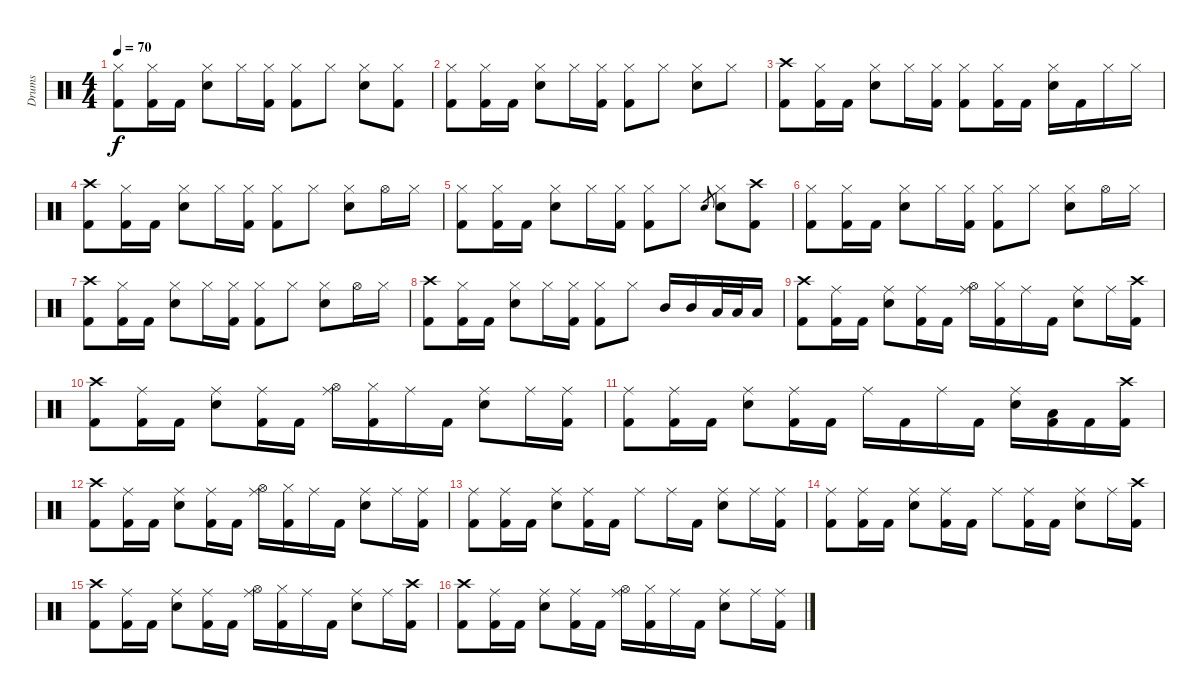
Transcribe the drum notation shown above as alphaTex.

\track ("Drums" "Drums") {instrument percussion}
\staff {score}
\articulation defaults
\ts (4 4)
\tempo 70
\clef neutral
\ks c
("Hi-Hat (closed)" "Kick (hit) 2").8{dy f} ("Hi-Hat (closed)" "Kick (hit) 2").16 "Kick (hit) 2".16 ("Hi-Hat (closed)" "Electric Snare (hit)").8 "Hi-Hat (closed)".16 ("Hi-Hat (closed)" "Kick (hit) 2").16 ("Hi-Hat (closed)" "Kick (hit) 2").8 "Hi-Hat (closed)".8 ("Hi-Hat (closed)" "Electric Snare (hit)").8 ("Hi-Hat (closed)" "Kick (hit) 2").8 |
("Hi-Hat (closed)" "Kick (hit) 2").8 ("Hi-Hat (closed)" "Kick (hit) 2").16 "Kick (hit) 2".16 ("Hi-Hat (closed)" "Electric Snare (hit)").8 "Hi-Hat (closed)".16 ("Hi-Hat (closed)" "Kick (hit) 2").16 ("Hi-Hat (closed)" "Kick (hit) 2").8 "Hi-Hat (closed)".8 ("Hi-Hat (closed)" "Electric Snare (hit)").8 "Hi-Hat (closed)".8 |
("Crash high (hit)" "Kick (hit) 2").8 ("Hi-Hat (closed)" "Kick (hit) 2").16 "Kick (hit) 2".16 ("Hi-Hat (closed)" "Electric Snare (hit)").8 "Hi-Hat (closed)".16 ("Hi-Hat (closed)" "Kick (hit) 2").16 ("Hi-Hat (closed)" "Kick (hit) 2").8 ("Hi-Hat (closed)" "Kick (hit) 2").16 "Kick (hit) 2".16 ("Hi-Hat (closed)" "Electric Snare (hit)").16 "Kick (hit) 2".16 "Hi-Hat (closed)".16 "Hi-Hat (closed)".16 |
("Crash high (hit)" "Kick (hit) 2").8 ("Hi-Hat (closed)" "Kick (hit) 2").16 "Kick (hit) 2".16 ("Hi-Hat (closed)" "Electric Snare (hit)").8 "Hi-Hat (closed)".16 ("Hi-Hat (closed)" "Kick (hit) 2").16 ("Hi-Hat (closed)" "Kick (hit) 2").8 "Hi-Hat (closed)".8 ("Hi-Hat (closed)" "Electric Snare (hit)").8 "Hi-Hat (open)".16 "Hi-Hat (closed)".16 |
("Hi-Hat (closed)" "Kick (hit) 2").8 ("Hi-Hat (closed)" "Kick (hit) 2").16 "Kick (hit) 2".16 ("Hi-Hat (closed)" "Electric Snare (hit)").8 "Hi-Hat (closed)".16 ("Hi-Hat (closed)" "Kick (hit) 2").16 ("Hi-Hat (closed)" "Kick (hit) 2").8 "Hi-Hat (closed)".8 "Electric Snare (hit)".8{gr} ("Hi-Hat (closed)" "Electric Snare (hit)").8 ("Crash high (hit)" "Kick (hit) 2").8 |
("Hi-Hat (closed)" "Kick (hit) 2").8 ("Hi-Hat (closed)" "Kick (hit) 2").16 "Kick (hit) 2".16 ("Hi-Hat (closed)" "Electric Snare (hit)").8 "Hi-Hat (closed)".16 ("Hi-Hat (closed)" "Kick (hit) 2").16 ("Hi-Hat (closed)" "Kick (hit) 2").8 "Hi-Hat (closed)".8 ("Hi-Hat (closed)" "Electric Snare (hit)").8 "Hi-Hat (open)".16 "Hi-Hat (closed)".16 |
("Crash high (hit)" "Kick (hit) 2").8 ("Hi-Hat (closed)" "Kick (hit) 2").16 "Kick (hit) 2".16 ("Hi-Hat (closed)" "Electric Snare (hit)").8 "Hi-Hat (closed)".16 ("Hi-Hat (closed)" "Kick (hit) 2").16 ("Hi-Hat (closed)" "Kick (hit) 2").8 "Hi-Hat (closed)".8 ("Hi-Hat (closed)" "Electric Snare (hit)").8 "Hi-Hat (open)".16 "Hi-Hat (closed)".16 |
("Crash high (hit)" "Kick (hit) 2").8 ("Hi-Hat (closed)" "Kick (hit) 2").16 "Kick (hit) 2".16 ("Hi-Hat (closed)" "Electric Snare (hit)").8 "Hi-Hat (closed)".16 ("Hi-Hat (closed)" "Kick (hit) 2").16 ("Hi-Hat (closed)" "Kick (hit) 2").8 "Hi-Hat (closed)".8 "Mid Tom (hit)".16 "Mid Tom (hit)".16 "Low Floor Tom (hit)".32 "Low Floor Tom (hit)".32 "Low Tom (hit)".16 |
("Crash high (hit)" "Kick (hit) 2").8 ("Ride (middle)" "Kick (hit) 2").16 "Kick (hit) 2".16 ("Ride (middle)" "Electric Snare (hit)").8 ("Ride (middle)" "Kick (hit) 2").16 "Kick (hit) 2".16 ("Ride (middle)" "Hi-Hat (open)").16 ("Hi-Hat (closed)" "Kick (hit) 2").16 "Ride (middle)".16 "Kick (hit) 2".16 ("Ride (middle)" "Electric Snare (hit)").8 "Ride (middle)".16 ("Crash high (hit)" "Kick (hit) 2").16 |
("Crash high (hit)" "Kick (hit) 2").8 ("Ride (middle)" "Kick (hit) 2").16 "Kick (hit) 2".16 ("Ride (middle)" "Electric Snare (hit)").8 ("Ride (middle)" "Kick (hit) 2").16 "Kick (hit) 2".16 ("Ride (middle)" "Hi-Hat (open)").16 ("Hi-Hat (closed)" "Kick (hit) 2").16 "Ride (middle)".16 "Kick (hit) 2".16 ("Ride (middle)" "Electric Snare (hit)").8 "Ride (middle)".16 ("Ride (middle)" "Kick (hit) 2").16 |
("Ride (middle)" "Kick (hit) 2").8 ("Ride (middle)" "Kick (hit) 2").16 "Kick (hit) 2".16 ("Ride (middle)" "Electric Snare (hit)").8 ("Ride (middle)" "Kick (hit) 2").16 "Kick (hit) 2".16 "Ride (middle)".16 "Kick (hit) 2".16 "Ride (middle)".16 "Kick (hit) 2".16 ("Ride (middle)" "Electric Snare (hit)").16 ("Low Tom (hit)" "Kick (hit) 2").16 "Kick (hit) 2".16 ("Crash high (hit)" "Kick (hit) 2").16 |
("Crash high (hit)" "Kick (hit) 2").8 ("Ride (middle)" "Kick (hit) 2").16 "Kick (hit) 2".16 ("Ride (middle)" "Electric Snare (hit)").8 ("Ride (middle)" "Kick (hit) 2").16 "Kick (hit) 2".16 ("Ride (middle)" "Hi-Hat (open)").16 ("Hi-Hat (closed)" "Kick (hit) 2").16 "Ride (middle)".16 "Kick (hit) 2".16 ("Ride (middle)" "Electric Snare (hit)").8 "Ride (middle)".16 ("Ride (middle)" "Kick (hit) 2").16 |
("Ride (middle)" "Kick (hit) 2").8 ("Ride (middle)" "Kick (hit) 2").16 "Kick (hit) 2".16 ("Ride (middle)" "Electric Snare (hit)").8 ("Ride (middle)" "Kick (hit) 2").16 "Kick (hit) 2".16 "Ride (middle)".8 "Ride (middle)".16 "Kick (hit) 2".16 ("Ride (middle)" "Electric Snare (hit)").8 "Ride (middle)".16 ("Ride (middle)" "Kick (hit) 2").16 |
("Ride (middle)" "Kick (hit) 2").8 ("Ride (middle)" "Kick (hit) 2").16 "Kick (hit) 2".16 ("Ride (middle)" "Electric Snare (hit)").8 ("Ride (middle)" "Kick (hit) 2").16 "Kick (hit) 2".16 "Ride (middle)".8 ("Ride (middle)" "Kick (hit) 2").16 "Kick (hit) 2".16 ("Ride (middle)" "Electric Snare (hit)").8 "Ride (middle)".16 ("Crash high (hit)" "Kick (hit) 2").16 |
("Crash high (hit)" "Kick (hit) 2").8 ("Ride (middle)" "Kick (hit) 2").16 "Kick (hit) 2".16 ("Ride (middle)" "Electric Snare (hit)").8 ("Ride (middle)" "Kick (hit) 2").16 "Kick (hit) 2".16 ("Ride (middle)" "Hi-Hat (open)").16 ("Hi-Hat (closed)" "Kick (hit) 2").16 "Ride (middle)".16 "Kick (hit) 2".16 ("Ride (middle)" "Electric Snare (hit)").8 "Ride (middle)".16 ("Crash high (hit)" "Kick (hit) 2").16 |
("Crash high (hit)" "Kick (hit) 2").8 ("Ride (middle)" "Kick (hit) 2").16 "Kick (hit) 2".16 ("Ride (middle)" "Electric Snare (hit)").8 ("Ride (middle)" "Kick (hit) 2").16 "Kick (hit) 2".16 ("Ride (middle)" "Hi-Hat (open)").16 ("Hi-Hat (closed)" "Kick (hit) 2").16 "Ride (middle)".16 "Kick (hit) 2".16 ("Ride (middle)" "Electric Snare (hit)").8 "Ride (middle)".16 ("Ride (middle)" "Kick (hit) 2").16
